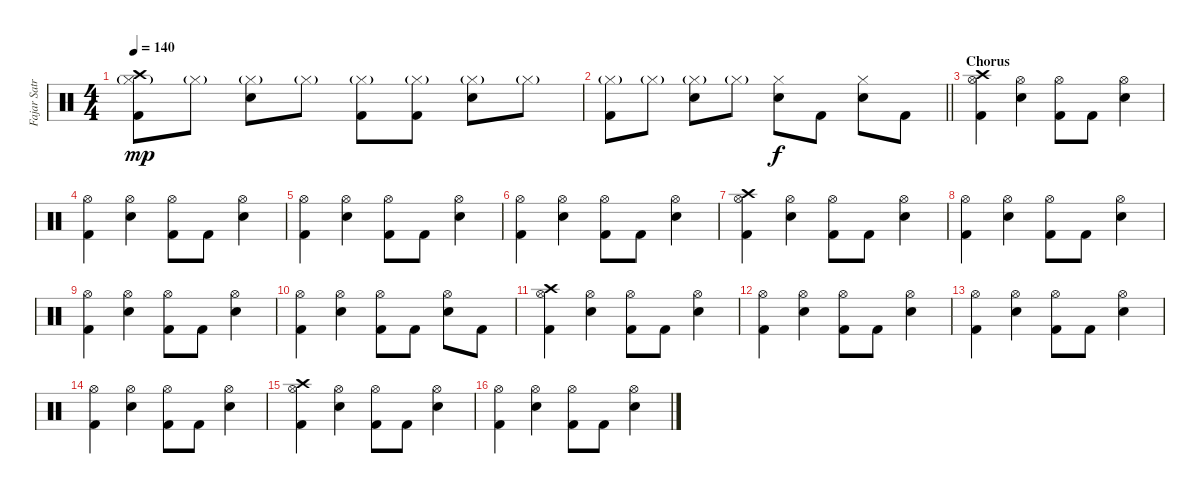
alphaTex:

\track ("Fajar Satriana" "Fajar Satr") {instrument percussion}
\staff {score}
\articulation defaults
\ts (4 4)
\tempo 140
\clef neutral
\ks c
("Crash high (hit)" "Hi-Hat (closed)"{g} "Kick (hit) 2").8{dy mp} "Hi-Hat (closed)"{g}.8 ("Hi-Hat (closed)"{g} "Electric Snare (hit)").8 "Hi-Hat (closed)"{g}.8 ("Hi-Hat (closed)"{g} "Kick (hit) 2").8 ("Hi-Hat (closed)"{g} "Kick (hit) 2").8 ("Hi-Hat (closed)"{g} "Electric Snare (hit)").8 "Hi-Hat (closed)"{g}.8 |
\barLineRight lightlight
("Hi-Hat (closed)"{g} "Kick (hit) 2").8 "Hi-Hat (closed)"{g}.8 ("Hi-Hat (closed)"{g} "Electric Snare (hit)").8 "Hi-Hat (closed)"{g}.8 ("Hi-Hat (closed)" "Electric Snare (hit)").8{dy f} "Kick (hit) 2".8 ("Hi-Hat (closed)" "Electric Snare (hit)").8 "Kick (hit) 2".8 |
\section ("" "Chorus")
("Crash high (hit)" "Hi-Hat (open)" "Kick (hit) 2").4 ("Hi-Hat (open)" "Electric Snare (hit)").4 ("Hi-Hat (open)" "Kick (hit) 2").8 "Kick (hit) 2".8 ("Hi-Hat (open)" "Electric Snare (hit)").4 |
("Hi-Hat (open)" "Kick (hit) 2").4 ("Hi-Hat (open)" "Electric Snare (hit)").4 ("Hi-Hat (open)" "Kick (hit) 2").8 "Kick (hit) 2".8 ("Hi-Hat (open)" "Electric Snare (hit)").4 |
("Hi-Hat (open)" "Kick (hit) 2").4 ("Hi-Hat (open)" "Electric Snare (hit)").4 ("Hi-Hat (open)" "Kick (hit) 2").8 "Kick (hit) 2".8 ("Hi-Hat (open)" "Electric Snare (hit)").4 |
("Hi-Hat (open)" "Kick (hit) 2").4 ("Hi-Hat (open)" "Electric Snare (hit)").4 ("Hi-Hat (open)" "Kick (hit) 2").8 "Kick (hit) 2".8 ("Hi-Hat (open)" "Electric Snare (hit)").4 |
("Crash high (hit)" "Hi-Hat (open)" "Kick (hit) 2").4 ("Hi-Hat (open)" "Electric Snare (hit)").4 ("Hi-Hat (open)" "Kick (hit) 2").8 "Kick (hit) 2".8 ("Hi-Hat (open)" "Electric Snare (hit)").4 |
("Hi-Hat (open)" "Kick (hit) 2").4 ("Hi-Hat (open)" "Electric Snare (hit)").4 ("Hi-Hat (open)" "Kick (hit) 2").8 "Kick (hit) 2".8 ("Hi-Hat (open)" "Electric Snare (hit)").4 |
("Hi-Hat (open)" "Kick (hit) 2").4 ("Hi-Hat (open)" "Electric Snare (hit)").4 ("Hi-Hat (open)" "Kick (hit) 2").8 "Kick (hit) 2".8 ("Hi-Hat (open)" "Electric Snare (hit)").4 |
("Hi-Hat (open)" "Kick (hit) 2").4 ("Hi-Hat (open)" "Electric Snare (hit)").4 ("Hi-Hat (open)" "Kick (hit) 2").8 "Kick (hit) 2".8 ("Hi-Hat (open)" "Electric Snare (hit)").8 "Kick (hit) 2".8 |
("Crash high (hit)" "Hi-Hat (open)" "Kick (hit) 2").4 ("Hi-Hat (open)" "Electric Snare (hit)").4 ("Hi-Hat (open)" "Kick (hit) 2").8 "Kick (hit) 2".8 ("Hi-Hat (open)" "Electric Snare (hit)").4 |
("Hi-Hat (open)" "Kick (hit) 2").4 ("Hi-Hat (open)" "Electric Snare (hit)").4 ("Hi-Hat (open)" "Kick (hit) 2").8 "Kick (hit) 2".8 ("Hi-Hat (open)" "Electric Snare (hit)").4 |
("Hi-Hat (open)" "Kick (hit) 2").4 ("Hi-Hat (open)" "Electric Snare (hit)").4 ("Hi-Hat (open)" "Kick (hit) 2").8 "Kick (hit) 2".8 ("Hi-Hat (open)" "Electric Snare (hit)").4 |
("Hi-Hat (open)" "Kick (hit) 2").4 ("Hi-Hat (open)" "Electric Snare (hit)").4 ("Hi-Hat (open)" "Kick (hit) 2").8 "Kick (hit) 2".8 ("Hi-Hat (open)" "Electric Snare (hit)").4 |
("Crash high (hit)" "Hi-Hat (open)" "Kick (hit) 2").4 ("Hi-Hat (open)" "Electric Snare (hit)").4 ("Hi-Hat (open)" "Kick (hit) 2").8 "Kick (hit) 2".8 ("Hi-Hat (open)" "Electric Snare (hit)").4 |
("Hi-Hat (open)" "Kick (hit) 2").4 ("Hi-Hat (open)" "Electric Snare (hit)").4 ("Hi-Hat (open)" "Kick (hit) 2").8 "Kick (hit) 2".8 ("Hi-Hat (open)" "Electric Snare (hit)").4
